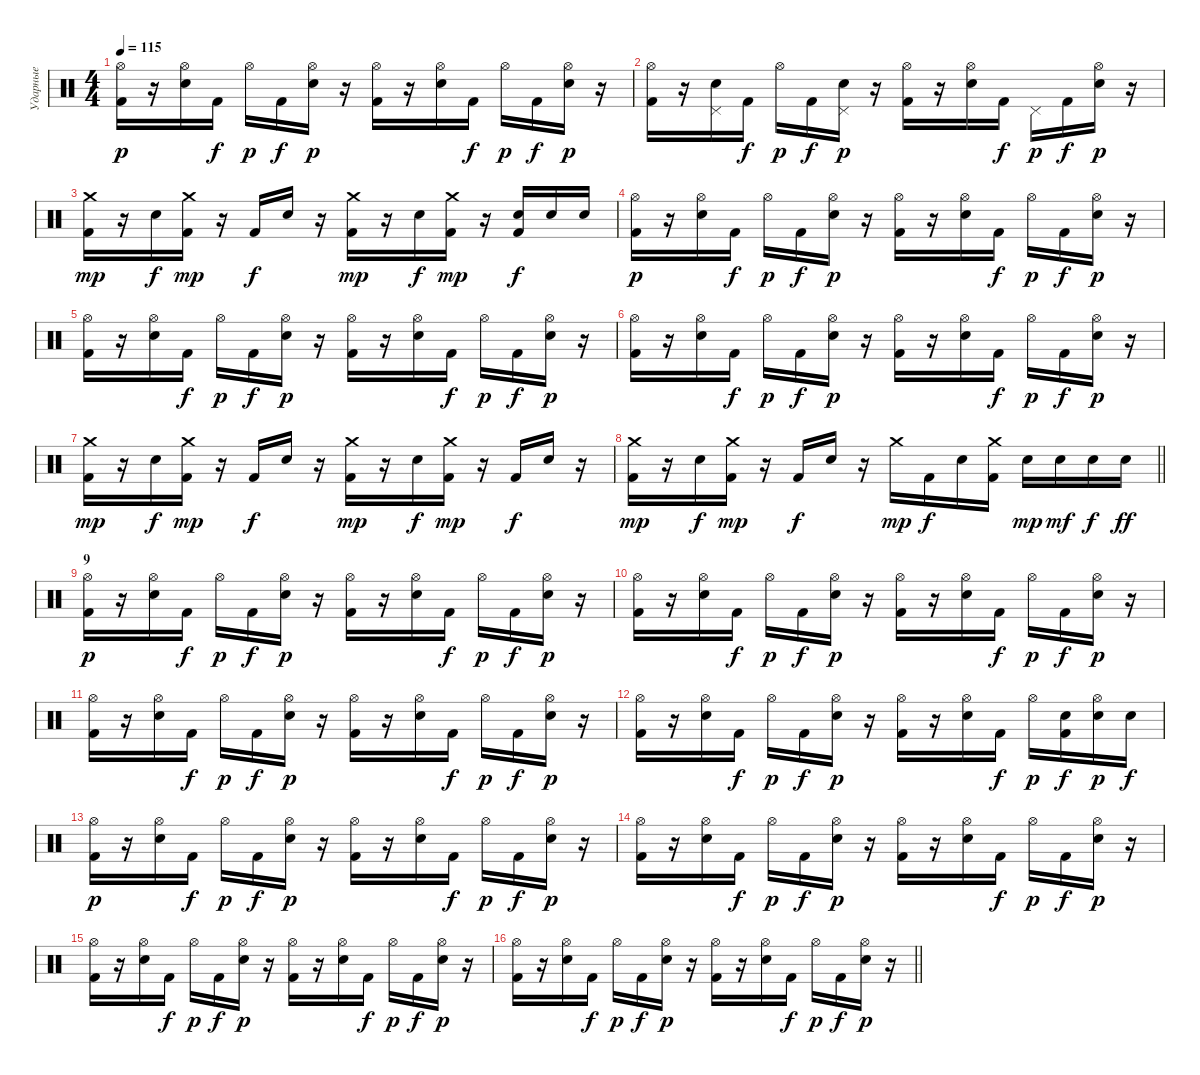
\track ("Ударные" "Ударные") {instrument percussion}
\staff {score}
\articulation defaults
\ts (4 4)
\tempo 115
\clef neutral
\ks c
("Hi-Hat (open)" "Kick (hit) 2").16{dy p} r.16 ("Hi-Hat (open)" "Snare (hit) 2").16 "Kick (hit) 2".16{dy f} "Hi-Hat (open)".16{dy p} "Kick (hit) 2".16{dy f} ("Hi-Hat (open)" "Snare (hit) 2").16{dy p} r.16 ("Hi-Hat (open)" "Kick (hit) 2").16 r.16 ("Hi-Hat (open)" "Snare (hit) 2").16 "Kick (hit) 2".16{dy f} "Hi-Hat (open)".16{dy p} "Kick (hit) 2".16{dy f} ("Hi-Hat (open)" "Snare (hit) 2").16{dy p} r.16 |
("Hi-Hat (open)" "Kick (hit) 2").16 r.16 ("Pedal Hi-Hat (hit)" "Snare (hit) 2").16 "Kick (hit) 2".16{dy f} "Hi-Hat (open)".16{dy p} "Kick (hit) 2".16{dy f} ("Pedal Hi-Hat (hit)" "Snare (hit) 2").16{dy p} r.16 ("Hi-Hat (open)" "Kick (hit) 2").16 r.16 ("Hi-Hat (open)" "Snare (hit) 2").16 "Kick (hit) 2".16{dy f} "Pedal Hi-Hat (hit)".16{dy p} "Kick (hit) 2".16{dy f} ("Hi-Hat (open)" "Snare (hit) 2").16{dy p} r.16 |
("Crash medium (hit)" "Kick (hit) 2").16{dy mp} r.16 "Snare (hit) 2".16{dy f} ("Crash medium (hit)" "Kick (hit) 2").16{dy mp} r.16 "Kick (hit) 2".16{dy f} "Snare (hit) 2".16 r.16 ("Crash medium (hit)" "Kick (hit) 2").16{dy mp} r.16 "Snare (hit) 2".16{dy f} ("Crash medium (hit)" "Kick (hit) 2").16{dy mp} r.16 ("Snare (hit) 2" "Kick (hit) 2").16{dy f} "Snare (hit) 2".16 "Snare (hit) 2".16 |
("Hi-Hat (open)" "Kick (hit) 2").16{dy p} r.16 ("Hi-Hat (open)" "Snare (hit) 2").16 "Kick (hit) 2".16{dy f} "Hi-Hat (open)".16{dy p} "Kick (hit) 2".16{dy f} ("Hi-Hat (open)" "Snare (hit) 2").16{dy p} r.16 ("Hi-Hat (open)" "Kick (hit) 2").16 r.16 ("Hi-Hat (open)" "Snare (hit) 2").16 "Kick (hit) 2".16{dy f} "Hi-Hat (open)".16{dy p} "Kick (hit) 2".16{dy f} ("Hi-Hat (open)" "Snare (hit) 2").16{dy p} r.16 |
("Hi-Hat (open)" "Kick (hit) 2").16 r.16 ("Hi-Hat (open)" "Snare (hit) 2").16 "Kick (hit) 2".16{dy f} "Hi-Hat (open)".16{dy p} "Kick (hit) 2".16{dy f} ("Hi-Hat (open)" "Snare (hit) 2").16{dy p} r.16 ("Hi-Hat (open)" "Kick (hit) 2").16 r.16 ("Hi-Hat (open)" "Snare (hit) 2").16 "Kick (hit) 2".16{dy f} "Hi-Hat (open)".16{dy p} "Kick (hit) 2".16{dy f} ("Hi-Hat (open)" "Snare (hit) 2").16{dy p} r.16 |
("Hi-Hat (open)" "Kick (hit) 2").16 r.16 ("Hi-Hat (open)" "Snare (hit) 2").16 "Kick (hit) 2".16{dy f} "Hi-Hat (open)".16{dy p} "Kick (hit) 2".16{dy f} ("Hi-Hat (open)" "Snare (hit) 2").16{dy p} r.16 ("Hi-Hat (open)" "Kick (hit) 2").16 r.16 ("Hi-Hat (open)" "Snare (hit) 2").16 "Kick (hit) 2".16{dy f} "Hi-Hat (open)".16{dy p} "Kick (hit) 2".16{dy f} ("Hi-Hat (open)" "Snare (hit) 2").16{dy p} r.16 |
("Crash medium (hit)" "Kick (hit) 2").16{dy mp} r.16 "Snare (hit) 2".16{dy f} ("Crash medium (hit)" "Kick (hit) 2").16{dy mp} r.16 "Kick (hit) 2".16{dy f} "Snare (hit) 2".16 r.16 ("Crash medium (hit)" "Kick (hit) 2").16{dy mp} r.16 "Snare (hit) 2".16{dy f} ("Crash medium (hit)" "Kick (hit) 2").16{dy mp} r.16 "Kick (hit) 2".16{dy f} "Snare (hit) 2".16 r.16 |
\barLineRight lightlight
("Crash medium (hit)" "Kick (hit) 2").16{dy mp} r.16 "Snare (hit) 2".16{dy f} ("Crash medium (hit)" "Kick (hit) 2").16{dy mp} r.16 "Kick (hit) 2".16{dy f} "Snare (hit) 2".16 r.16 "Crash medium (hit)".16{dy mp} "Kick (hit) 2".16{dy f} "Snare (hit) 2".16 ("Crash medium (hit)" "Kick (hit) 2").16 "Snare (hit) 2".16{dy mp} "Snare (hit) 2".16{dy mf} "Snare (hit) 2".16{dy f} "Snare (hit) 2".16{dy ff} |
\section ("" "9")
("Hi-Hat (open)" "Kick (hit) 2").16{dy p} r.16 ("Hi-Hat (open)" "Snare (hit) 2").16 "Kick (hit) 2".16{dy f} "Hi-Hat (open)".16{dy p} "Kick (hit) 2".16{dy f} ("Hi-Hat (open)" "Snare (hit) 2").16{dy p} r.16 ("Hi-Hat (open)" "Kick (hit) 2").16 r.16 ("Hi-Hat (open)" "Snare (hit) 2").16 "Kick (hit) 2".16{dy f} "Hi-Hat (open)".16{dy p} "Kick (hit) 2".16{dy f} ("Hi-Hat (open)" "Snare (hit) 2").16{dy p} r.16 |
("Hi-Hat (open)" "Kick (hit) 2").16 r.16 ("Hi-Hat (open)" "Snare (hit) 2").16 "Kick (hit) 2".16{dy f} "Hi-Hat (open)".16{dy p} "Kick (hit) 2".16{dy f} ("Hi-Hat (open)" "Snare (hit) 2").16{dy p} r.16 ("Hi-Hat (open)" "Kick (hit) 2").16 r.16 ("Hi-Hat (open)" "Snare (hit) 2").16 "Kick (hit) 2".16{dy f} "Hi-Hat (open)".16{dy p} "Kick (hit) 2".16{dy f} ("Hi-Hat (open)" "Snare (hit) 2").16{dy p} r.16 |
("Hi-Hat (open)" "Kick (hit) 2").16 r.16 ("Hi-Hat (open)" "Snare (hit) 2").16 "Kick (hit) 2".16{dy f} "Hi-Hat (open)".16{dy p} "Kick (hit) 2".16{dy f} ("Hi-Hat (open)" "Snare (hit) 2").16{dy p} r.16 ("Hi-Hat (open)" "Kick (hit) 2").16 r.16 ("Hi-Hat (open)" "Snare (hit) 2").16 "Kick (hit) 2".16{dy f} "Hi-Hat (open)".16{dy p} "Kick (hit) 2".16{dy f} ("Hi-Hat (open)" "Snare (hit) 2").16{dy p} r.16 |
("Hi-Hat (open)" "Kick (hit) 2").16 r.16 ("Hi-Hat (open)" "Snare (hit) 2").16 "Kick (hit) 2".16{dy f} "Hi-Hat (open)".16{dy p} "Kick (hit) 2".16{dy f} ("Hi-Hat (open)" "Snare (hit) 2").16{dy p} r.16 ("Hi-Hat (open)" "Kick (hit) 2").16 r.16 ("Hi-Hat (open)" "Snare (hit) 2").16 "Kick (hit) 2".16{dy f} "Hi-Hat (open)".16{dy p} ("Snare (hit) 2" "Kick (hit) 2").16{dy f} ("Hi-Hat (open)" "Snare (hit) 2").16{dy p} "Snare (hit) 2".16{dy f} |
("Hi-Hat (open)" "Kick (hit) 2").16{dy p} r.16 ("Hi-Hat (open)" "Snare (hit) 2").16 "Kick (hit) 2".16{dy f} "Hi-Hat (open)".16{dy p} "Kick (hit) 2".16{dy f} ("Hi-Hat (open)" "Snare (hit) 2").16{dy p} r.16 ("Hi-Hat (open)" "Kick (hit) 2").16 r.16 ("Hi-Hat (open)" "Snare (hit) 2").16 "Kick (hit) 2".16{dy f} "Hi-Hat (open)".16{dy p} "Kick (hit) 2".16{dy f} ("Hi-Hat (open)" "Snare (hit) 2").16{dy p} r.16 |
("Hi-Hat (open)" "Kick (hit) 2").16 r.16 ("Hi-Hat (open)" "Snare (hit) 2").16 "Kick (hit) 2".16{dy f} "Hi-Hat (open)".16{dy p} "Kick (hit) 2".16{dy f} ("Hi-Hat (open)" "Snare (hit) 2").16{dy p} r.16 ("Hi-Hat (open)" "Kick (hit) 2").16 r.16 ("Hi-Hat (open)" "Snare (hit) 2").16 "Kick (hit) 2".16{dy f} "Hi-Hat (open)".16{dy p} "Kick (hit) 2".16{dy f} ("Hi-Hat (open)" "Snare (hit) 2").16{dy p} r.16 |
("Hi-Hat (open)" "Kick (hit) 2").16 r.16 ("Hi-Hat (open)" "Snare (hit) 2").16 "Kick (hit) 2".16{dy f} "Hi-Hat (open)".16{dy p} "Kick (hit) 2".16{dy f} ("Hi-Hat (open)" "Snare (hit) 2").16{dy p} r.16 ("Hi-Hat (open)" "Kick (hit) 2").16 r.16 ("Hi-Hat (open)" "Snare (hit) 2").16 "Kick (hit) 2".16{dy f} "Hi-Hat (open)".16{dy p} "Kick (hit) 2".16{dy f} ("Hi-Hat (open)" "Snare (hit) 2").16{dy p} r.16 |
\barLineRight lightlight
("Hi-Hat (open)" "Kick (hit) 2").16 r.16 ("Hi-Hat (open)" "Snare (hit) 2").16 "Kick (hit) 2".16{dy f} "Hi-Hat (open)".16{dy p} "Kick (hit) 2".16{dy f} ("Hi-Hat (open)" "Snare (hit) 2").16{dy p} r.16 ("Hi-Hat (open)" "Kick (hit) 2").16 r.16 ("Hi-Hat (open)" "Snare (hit) 2").16 "Kick (hit) 2".16{dy f} "Hi-Hat (open)".16{dy p} "Kick (hit) 2".16{dy f} ("Hi-Hat (open)" "Snare (hit) 2").16{dy p} r.16
